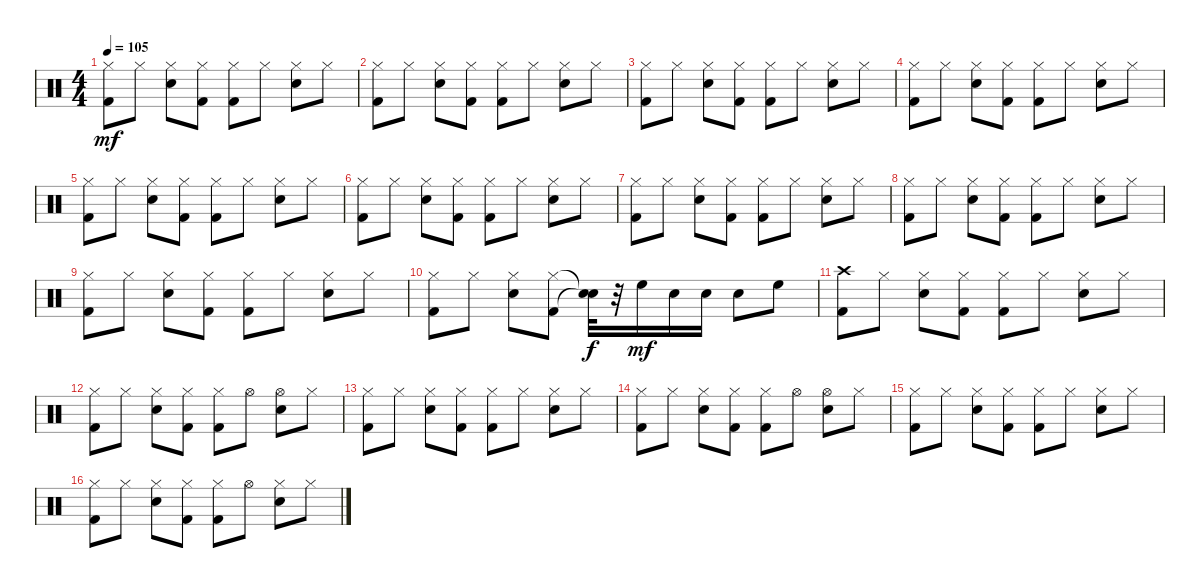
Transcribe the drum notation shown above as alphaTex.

\track "" {instrument percussion}
\staff {score}
\articulation defaults
\ts (4 4)
\tempo 105
\clef neutral
\ks c
("Kick (hit) 2" "Hi-Hat (closed)").8{dy mf} "Hi-Hat (closed)".8 ("Snare (hit) 2" "Hi-Hat (closed)").8 ("Kick (hit) 2" "Hi-Hat (closed)").8 ("Kick (hit) 2" "Hi-Hat (closed)").8 "Hi-Hat (closed)".8 ("Snare (hit) 2" "Hi-Hat (closed)").8 "Hi-Hat (closed)".8 |
("Kick (hit) 2" "Hi-Hat (closed)").8 "Hi-Hat (closed)".8 ("Snare (hit) 2" "Hi-Hat (closed)").8 ("Kick (hit) 2" "Hi-Hat (closed)").8 ("Kick (hit) 2" "Hi-Hat (closed)").8 "Hi-Hat (closed)".8 ("Snare (hit) 2" "Hi-Hat (closed)").8 "Hi-Hat (closed)".8 |
("Kick (hit) 2" "Hi-Hat (closed)").8 "Hi-Hat (closed)".8 ("Snare (hit) 2" "Hi-Hat (closed)").8 ("Kick (hit) 2" "Hi-Hat (closed)").8 ("Kick (hit) 2" "Hi-Hat (closed)").8 "Hi-Hat (closed)".8 ("Snare (hit) 2" "Hi-Hat (closed)").8 "Hi-Hat (closed)".8 |
("Kick (hit) 2" "Hi-Hat (closed)").8 "Hi-Hat (closed)".8 ("Snare (hit) 2" "Hi-Hat (closed)").8 ("Kick (hit) 2" "Hi-Hat (closed)").8 ("Kick (hit) 2" "Hi-Hat (closed)").8 "Hi-Hat (closed)".8 ("Snare (hit) 2" "Hi-Hat (closed)").8 "Hi-Hat (closed)".8 |
("Kick (hit) 2" "Hi-Hat (closed)").8 "Hi-Hat (closed)".8 ("Snare (hit) 2" "Hi-Hat (closed)").8 ("Kick (hit) 2" "Hi-Hat (closed)").8 ("Kick (hit) 2" "Hi-Hat (closed)").8 "Hi-Hat (closed)".8 ("Snare (hit) 2" "Hi-Hat (closed)").8 "Hi-Hat (closed)".8 |
("Kick (hit) 2" "Hi-Hat (closed)").8 "Hi-Hat (closed)".8 ("Snare (hit) 2" "Hi-Hat (closed)").8 ("Kick (hit) 2" "Hi-Hat (closed)").8 ("Kick (hit) 2" "Hi-Hat (closed)").8 "Hi-Hat (closed)".8 ("Snare (hit) 2" "Hi-Hat (closed)").8 "Hi-Hat (closed)".8 |
("Kick (hit) 2" "Hi-Hat (closed)").8 "Hi-Hat (closed)".8 ("Snare (hit) 2" "Hi-Hat (closed)").8 ("Kick (hit) 2" "Hi-Hat (closed)").8 ("Kick (hit) 2" "Hi-Hat (closed)").8 "Hi-Hat (closed)".8 ("Snare (hit) 2" "Hi-Hat (closed)").8 "Hi-Hat (closed)".8 |
("Kick (hit) 2" "Hi-Hat (closed)").8 "Hi-Hat (closed)".8 ("Snare (hit) 2" "Hi-Hat (closed)").8 ("Kick (hit) 2" "Hi-Hat (closed)").8 ("Kick (hit) 2" "Hi-Hat (closed)").8 "Hi-Hat (closed)".8 ("Snare (hit) 2" "Hi-Hat (closed)").8 "Hi-Hat (closed)".8 |
("Kick (hit) 2" "Hi-Hat (closed)").8 "Hi-Hat (closed)".8 ("Snare (hit) 2" "Hi-Hat (closed)").8 ("Kick (hit) 2" "Hi-Hat (closed)").8 ("Kick (hit) 2" "Hi-Hat (closed)").8 "Hi-Hat (closed)".8 ("Snare (hit) 2" "Hi-Hat (closed)").8 "Hi-Hat (closed)".8 |
("Kick (hit) 2" "Hi-Hat (closed)").8 "Hi-Hat (closed)".8 ("Snare (hit) 2" "Hi-Hat (closed)").8 ("Kick (hit) 2" "Hi-Hat (closed)").8 ("Snare (hit)"{t} "Snare (hit)"{t}).32{dy f} r.32 "High Floor Tom (hit)".16{dy mf} "Snare (hit) 2".16 "Snare (hit) 2".16 "Snare (hit) 2".8 "High Floor Tom (hit)".8 |
("Kick (hit) 2" "Crash high (hit)").8 "Hi-Hat (closed)".8 ("Snare (hit) 2" "Hi-Hat (closed)").8 ("Kick (hit) 2" "Hi-Hat (closed)").8 ("Kick (hit) 2" "Hi-Hat (closed)").8 "Hi-Hat (closed)".8 ("Snare (hit) 2" "Hi-Hat (closed)").8 "Hi-Hat (closed)".8 |
("Kick (hit) 2" "Hi-Hat (closed)").8 "Hi-Hat (closed)".8 ("Snare (hit) 2" "Hi-Hat (closed)").8 ("Kick (hit) 2" "Hi-Hat (closed)").8 ("Kick (hit) 2" "Hi-Hat (closed)").8 "Hi-Hat (open)".8 ("Snare (hit) 2" "Hi-Hat (open)").8 "Hi-Hat (closed)".8 |
("Kick (hit) 2" "Hi-Hat (closed)").8 "Hi-Hat (closed)".8 ("Snare (hit) 2" "Hi-Hat (closed)").8 ("Kick (hit) 2" "Hi-Hat (closed)").8 ("Kick (hit) 2" "Hi-Hat (closed)").8 "Hi-Hat (closed)".8 ("Snare (hit) 2" "Hi-Hat (closed)").8 "Hi-Hat (closed)".8 |
("Kick (hit) 2" "Hi-Hat (closed)").8 "Hi-Hat (closed)".8 ("Snare (hit) 2" "Hi-Hat (closed)").8 ("Kick (hit) 2" "Hi-Hat (closed)").8 ("Kick (hit) 2" "Hi-Hat (closed)").8 "Hi-Hat (open)".8 ("Snare (hit) 2" "Hi-Hat (open)").8 "Hi-Hat (closed)".8 |
("Kick (hit) 2" "Hi-Hat (closed)").8 "Hi-Hat (closed)".8 ("Snare (hit) 2" "Hi-Hat (closed)").8 ("Kick (hit) 2" "Hi-Hat (closed)").8 ("Kick (hit) 2" "Hi-Hat (closed)").8 "Hi-Hat (closed)".8 ("Snare (hit) 2" "Hi-Hat (closed)").8 "Hi-Hat (closed)".8 |
("Kick (hit) 2" "Hi-Hat (closed)").8 "Hi-Hat (closed)".8 ("Snare (hit) 2" "Hi-Hat (closed)").8 ("Kick (hit) 2" "Hi-Hat (closed)").8 ("Kick (hit) 2" "Hi-Hat (closed)").8 "Hi-Hat (open)".8 ("Snare (hit) 2" "Hi-Hat (closed)").8 "Hi-Hat (closed)".8
